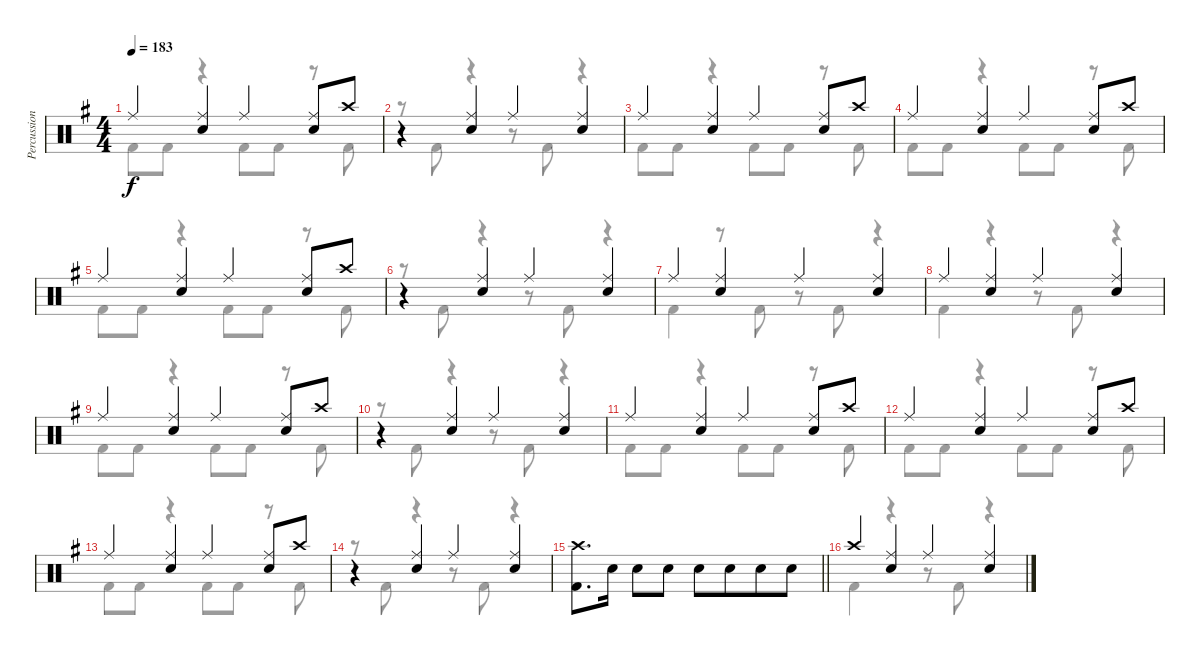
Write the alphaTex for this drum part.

\track ("Percussion" "Percussion") {instrument percussion}
\staff {score}
\articulation defaults
\voice
\ts (4 4)
\tempo 183
\clef neutral
\ks g "Ride (middle)".4{dy f}
("Ride (middle)" "Electric Snare (hit)").4 "Ride (middle)".4 ("Ride (middle)" "Electric Snare (hit)").8 "Crash high (hit)".8 |
r.4 ("Ride (middle)" "Electric Snare (hit)").4 "Ride (middle)".4 ("Ride (middle)" "Electric Snare (hit)").4 |
"Ride (middle)".4 ("Ride (middle)" "Electric Snare (hit)").4 "Ride (middle)".4 ("Ride (middle)" "Electric Snare (hit)").8 "Crash high (hit)".8 |
"Ride (middle)".4 ("Ride (middle)" "Electric Snare (hit)").4 "Ride (middle)".4 ("Ride (middle)" "Electric Snare (hit)").8 "Crash high (hit)".8 |
"Ride (middle)".4 ("Ride (middle)" "Electric Snare (hit)").4 "Ride (middle)".4 ("Ride (middle)" "Electric Snare (hit)").8 "Crash high (hit)".8 |
r.4 ("Ride (middle)" "Electric Snare (hit)").4 "Ride (middle)".4 ("Ride (middle)" "Electric Snare (hit)").4 |
"Ride (middle)".4 ("Ride (middle)" "Electric Snare (hit)").4 "Ride (middle)".4 ("Ride (middle)" "Electric Snare (hit)").4 |
"Ride (middle)".4 ("Ride (middle)" "Electric Snare (hit)").4 "Ride (middle)".4 ("Ride (middle)" "Electric Snare (hit)").4 |
"Ride (middle)".4 ("Ride (middle)" "Electric Snare (hit)").4 "Ride (middle)".4 ("Ride (middle)" "Electric Snare (hit)").8 "Crash high (hit)".8 |
r.4 ("Ride (middle)" "Electric Snare (hit)").4 "Ride (middle)".4 ("Ride (middle)" "Electric Snare (hit)").4 |
"Ride (middle)".4 ("Ride (middle)" "Electric Snare (hit)").4 "Ride (middle)".4 ("Ride (middle)" "Electric Snare (hit)").8 "Crash high (hit)".8 |
"Ride (middle)".4 ("Ride (middle)" "Electric Snare (hit)").4 "Ride (middle)".4 ("Ride (middle)" "Electric Snare (hit)").8 "Crash high (hit)".8 |
"Ride (middle)".4 ("Ride (middle)" "Electric Snare (hit)").4 "Ride (middle)".4 ("Ride (middle)" "Electric Snare (hit)").8 "Crash high (hit)".8 |
r.4 ("Ride (middle)" "Electric Snare (hit)").4 "Ride (middle)".4 ("Ride (middle)" "Electric Snare (hit)").4 |
\barLineRight lightlight
("Crash high (hit)" "Kick (hit) 2").8{d} "Electric Snare (hit)".16 "Electric Snare (hit)".8 "Electric Snare (hit)".8 "Electric Snare (hit)".8 "Electric Snare (hit)".8{beam merge} "Electric Snare (hit)".8 "Electric Snare (hit)".8 |
"Crash high (hit)".4 ("Ride (middle)" "Electric Snare (hit)").4 "Ride (middle)".4 ("Ride (middle)" "Electric Snare (hit)").4
\voice
\clef neutral
\ottava regular
\simile none
\ks g "Kick (hit) 2".8{dy f} "Kick (hit) 2".8
r.4 "Kick (hit) 2".8 "Kick (hit) 2".8 r.8 "Kick (hit) 2".8 |
r.8 "Kick (hit) 2".8 r.4 r.8 "Kick (hit) 2".8 r.4 |
"Kick (hit) 2".8 "Kick (hit) 2".8 r.4 "Kick (hit) 2".8 "Kick (hit) 2".8 r.8 "Kick (hit) 2".8 |
"Kick (hit) 2".8 "Kick (hit) 2".8 r.4 "Kick (hit) 2".8 "Kick (hit) 2".8 r.8 "Kick (hit) 2".8 |
"Kick (hit) 2".8 "Kick (hit) 2".8 r.4 "Kick (hit) 2".8 "Kick (hit) 2".8 r.8 "Kick (hit) 2".8 |
r.8 "Kick (hit) 2".8 r.4 r.8 "Kick (hit) 2".8 r.4 |
"Kick (hit) 2".4 r.8 "Kick (hit) 2".8 r.8 "Kick (hit) 2".8 r.4 |
"Kick (hit) 2".4 r.4 r.8 "Kick (hit) 2".8 r.4 |
"Kick (hit) 2".8 "Kick (hit) 2".8 r.4 "Kick (hit) 2".8 "Kick (hit) 2".8 r.8 "Kick (hit) 2".8 |
r.8 "Kick (hit) 2".8 r.4 r.8 "Kick (hit) 2".8 r.4 |
"Kick (hit) 2".8 "Kick (hit) 2".8 r.4 "Kick (hit) 2".8 "Kick (hit) 2".8 r.8 "Kick (hit) 2".8 |
"Kick (hit) 2".8 "Kick (hit) 2".8 r.4 "Kick (hit) 2".8 "Kick (hit) 2".8 r.8 "Kick (hit) 2".8 |
"Kick (hit) 2".8 "Kick (hit) 2".8 r.4 "Kick (hit) 2".8 "Kick (hit) 2".8 r.8 "Kick (hit) 2".8 |
r.8 "Kick (hit) 2".8 r.4 r.8 "Kick (hit) 2".8 r.4 |
\barLineRight lightlight
|
"Kick (hit) 2".4 r.4 r.8 "Kick (hit) 2".8 r.4
